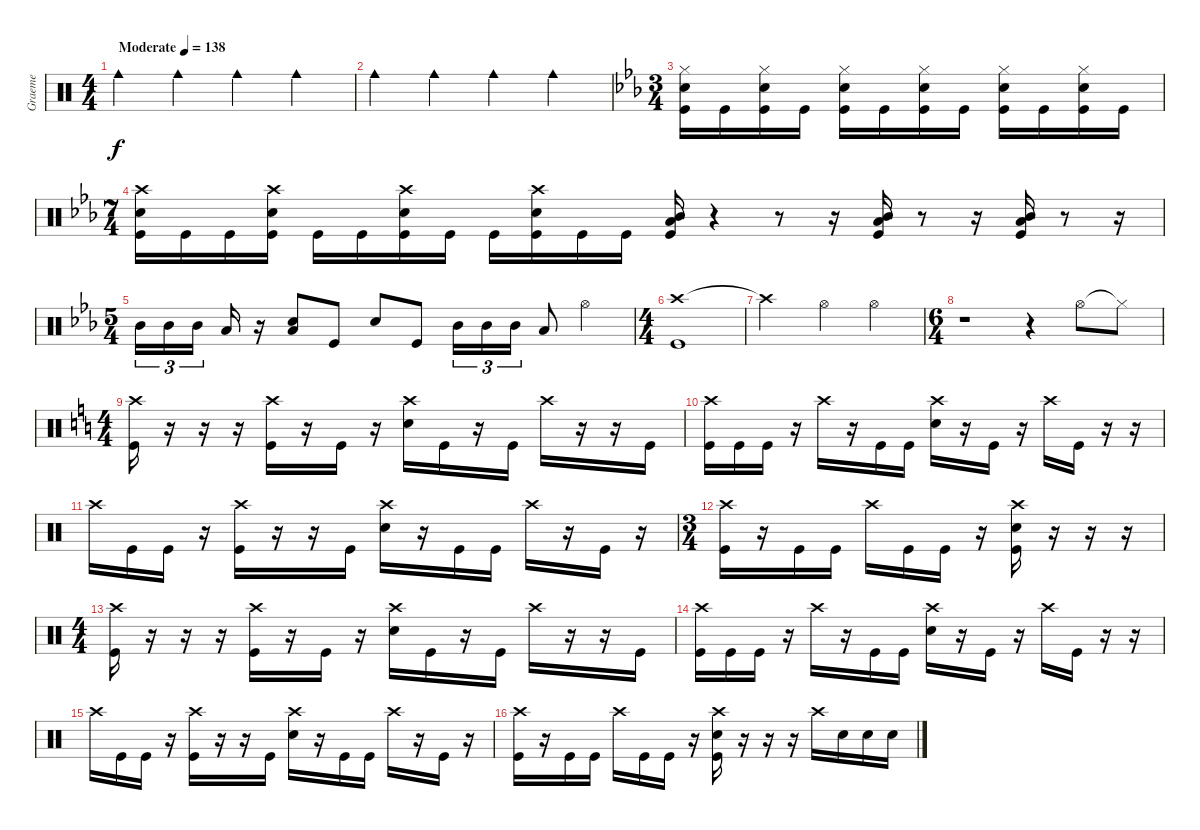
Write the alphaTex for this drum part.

\track ("Graeme" "Graeme") {instrument percussion}
\staff {score}
\articulation defaults
\ts (4 4)
\tempo (138 "Moderate")
\clef neutral
\ks c "Cowbell medium (hit)".4{dy f} "Cowbell medium (hit)".4 "Cowbell medium (hit)".4 "Cowbell medium (hit)".4
|
"Cowbell medium (hit)".4 "Cowbell medium (hit)".4 "Cowbell medium (hit)".4 "Cowbell medium (hit)".4 |
\ts (3 4)
\ks cminor
("Hi-Hat (closed)" "Snare (hit) 2" "Kick (hit)").16 "Kick (hit)".16 ("Hi-Hat (closed)" "Snare (hit) 2" "Kick (hit)").16 "Kick (hit)".16 ("Hi-Hat (closed)" "Snare (hit) 2" "Kick (hit)").16 "Kick (hit)".16 ("Hi-Hat (closed)" "Snare (hit) 2" "Kick (hit)").16 "Kick (hit)".16 ("Hi-Hat (closed)" "Snare (hit) 2" "Kick (hit)").16 "Kick (hit)".16 ("Hi-Hat (closed)" "Snare (hit) 2" "Kick (hit)").16 "Kick (hit)".16 |
\ts (7 4)
("Crash high (hit)" "Snare (hit) 2" "Kick (hit)").16 "Kick (hit)".16 "Kick (hit)".16 ("Crash high (hit)" "Snare (hit) 2" "Kick (hit)").16 "Kick (hit)".16 "Kick (hit)".16 ("Crash high (hit)" "Snare (hit) 2" "Kick (hit)").16 "Kick (hit)".16 "Kick (hit)".16 ("Crash high (hit)" "Snare (hit) 2" "Kick (hit)").16 "Kick (hit)".16 "Kick (hit)".16 ("Mid Tom (hit)" "Low Tom (hit)" "Kick (hit)").16 r.4 r.8 r.16 ("Mid Tom (hit)" "Low Tom (hit)" "Kick (hit)").16 r.8 r.16 ("Mid Tom (hit)" "Low Tom (hit)" "Kick (hit)").16 r.8 r.16 |
\ts (5 4)
"Mid Tom (hit)".16{tu (3 2)} "Mid Tom (hit)".16{tu (3 2)} "Mid Tom (hit)".16{tu (3 2) beam splitsecondary} "Low Tom (hit)".16 r.16 ("Low Tom (hit)" "Snare (hit) 2").8 "Kick (hit)".8 "Snare (hit) 2".8 "Kick (hit)".8 "Mid Tom (hit)".16{tu (3 2)} "Mid Tom (hit)".16{tu (3 2)} "Mid Tom (hit)".16{tu (3 2)} "Low Tom (hit)".8 "Hi-Hat (open)".4 |
\ts (4 4)
("Crash high (hit)" "Kick (hit)").1 |
"Crash high (hit)"{t}.2 "Hi-Hat (open)".4 "Hi-Hat (open)".4 |
\ts (6 4)
r.1 r.4 "Hi-Hat (open)".8 "Hi-Hat (closed)"{t}.8 |
\ts (4 4)
\ks c
("Crash high (hit)" "Kick (hit)").16 r.16 r.16 r.16 ("Crash high (hit)" "Kick (hit)").16 r.16 "Kick (hit)".16 r.16 ("Crash high (hit)" "Snare (hit) 2").16 "Kick (hit)".16 r.16 "Kick (hit)".16 "Crash high (hit)".16 r.16 r.16 "Kick (hit)".16 |
("Crash high (hit)" "Kick (hit)").16 "Kick (hit)".16 "Kick (hit)".16 r.16 "Crash high (hit)".16 r.16 "Kick (hit)".16 "Kick (hit)".16 ("Crash high (hit)" "Snare (hit) 2").16 r.16 "Kick (hit)".16 r.16 "Crash high (hit)".16 "Kick (hit)".16 r.16 r.16 |
"Crash high (hit)".16 "Kick (hit)".16 "Kick (hit)".16 r.16 ("Crash high (hit)" "Kick (hit)").16 r.16 r.16 "Kick (hit)".16 ("Crash high (hit)" "Snare (hit) 2").16 r.16 "Kick (hit)".16 "Kick (hit)".16 "Crash high (hit)".16 r.16 "Kick (hit)".16 r.16 |
\ts (3 4)
("Crash high (hit)" "Kick (hit)").16 r.16 "Kick (hit)".16 "Kick (hit)".16 "Crash high (hit)".16 "Kick (hit)".16 "Kick (hit)".16 r.16 ("Crash high (hit)" "Snare (hit) 2" "Kick (hit)").16 r.16 r.16 r.16 |
\ts (4 4)
("Crash high (hit)" "Kick (hit)").16 r.16 r.16 r.16 ("Crash high (hit)" "Kick (hit)").16 r.16 "Kick (hit)".16 r.16 ("Crash high (hit)" "Snare (hit) 2").16 "Kick (hit)".16 r.16 "Kick (hit)".16 "Crash high (hit)".16 r.16 r.16 "Kick (hit)".16 |
("Crash high (hit)" "Kick (hit)").16 "Kick (hit)".16 "Kick (hit)".16 r.16 "Crash high (hit)".16 r.16 "Kick (hit)".16 "Kick (hit)".16 ("Crash high (hit)" "Snare (hit) 2").16 r.16 "Kick (hit)".16 r.16 "Crash high (hit)".16 "Kick (hit)".16 r.16 r.16 |
"Crash high (hit)".16 "Kick (hit)".16 "Kick (hit)".16 r.16 ("Crash high (hit)" "Kick (hit)").16 r.16 r.16 "Kick (hit)".16 ("Crash high (hit)" "Snare (hit) 2").16 r.16 "Kick (hit)".16 "Kick (hit)".16 "Crash high (hit)".16 r.16 "Kick (hit)".16 r.16 |
("Crash high (hit)" "Kick (hit)").16 r.16 "Kick (hit)".16 "Kick (hit)".16 "Crash high (hit)".16 "Kick (hit)".16 "Kick (hit)".16 r.16 ("Crash high (hit)" "Snare (hit) 2" "Kick (hit)").16 r.16 r.16 r.16 "Crash high (hit)".16 "Snare (hit) 2".16 "Snare (hit) 2".16 "Snare (hit) 2".16
